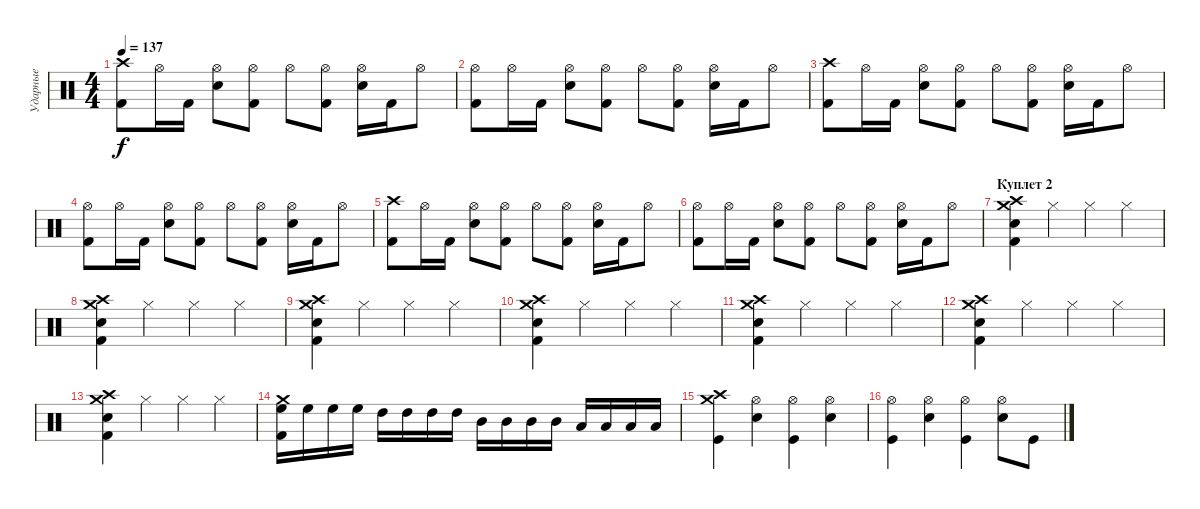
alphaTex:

\track ("Ударные" "Ударные") {instrument percussion}
\staff {score}
\articulation defaults
\ts (4 4)
\tempo 137
\clef neutral
\ks c
("Crash high (hit)" "Kick (hit) 2").8{dy f} "Hi-Hat (open)".16 "Kick (hit) 2".16 ("Hi-Hat (open)" "Electric Snare (hit)").8 ("Hi-Hat (open)" "Kick (hit) 2").8 "Hi-Hat (open)".8 ("Hi-Hat (open)" "Kick (hit) 2").8 ("Hi-Hat (open)" "Electric Snare (hit)").16 "Kick (hit) 2".16 "Hi-Hat (open)".8 |
("Hi-Hat (open)" "Kick (hit) 2").8 "Hi-Hat (open)".16 "Kick (hit) 2".16 ("Hi-Hat (open)" "Electric Snare (hit)").8 ("Hi-Hat (open)" "Kick (hit) 2").8 "Hi-Hat (open)".8 ("Hi-Hat (open)" "Kick (hit) 2").8 ("Hi-Hat (open)" "Electric Snare (hit)").16 "Kick (hit) 2".16 "Hi-Hat (open)".8 |
("Crash high (hit)" "Kick (hit) 2").8 "Hi-Hat (open)".16 "Kick (hit) 2".16 ("Hi-Hat (open)" "Electric Snare (hit)").8 ("Hi-Hat (open)" "Kick (hit) 2").8 "Hi-Hat (open)".8 ("Hi-Hat (open)" "Kick (hit) 2").8 ("Hi-Hat (open)" "Electric Snare (hit)").16 "Kick (hit) 2".16 "Hi-Hat (open)".8 |
("Hi-Hat (open)" "Kick (hit) 2").8 "Hi-Hat (open)".16 "Kick (hit) 2".16 ("Hi-Hat (open)" "Electric Snare (hit)").8 ("Hi-Hat (open)" "Kick (hit) 2").8 "Hi-Hat (open)".8 ("Hi-Hat (open)" "Kick (hit) 2").8 ("Hi-Hat (open)" "Electric Snare (hit)").16 "Kick (hit) 2".16 "Hi-Hat (open)".8 |
("Crash high (hit)" "Kick (hit) 2").8 "Hi-Hat (open)".16 "Kick (hit) 2".16 ("Hi-Hat (open)" "Electric Snare (hit)").8 ("Hi-Hat (open)" "Kick (hit) 2").8 "Hi-Hat (open)".8 ("Hi-Hat (open)" "Kick (hit) 2").8 ("Hi-Hat (open)" "Electric Snare (hit)").16 "Kick (hit) 2".16 "Hi-Hat (open)".8 |
("Hi-Hat (open)" "Kick (hit) 2").8 "Hi-Hat (open)".16 "Kick (hit) 2".16 ("Hi-Hat (open)" "Electric Snare (hit)").8 ("Hi-Hat (open)" "Kick (hit) 2").8 "Hi-Hat (open)".8 ("Hi-Hat (open)" "Kick (hit) 2").8 ("Hi-Hat (open)" "Electric Snare (hit)").16 "Kick (hit) 2".16 "Hi-Hat (open)".8 |
\section ("" "Куплет 2")
("Crash medium (hit)" "Crash high (hit)" "Electric Snare (hit)" "Kick (hit) 2").4 "Hi-Hat (closed)".4 "Hi-Hat (closed)".4 "Hi-Hat (closed)".4 |
("Crash medium (hit)" "Crash high (hit)" "Electric Snare (hit)" "Kick (hit) 2").4 "Hi-Hat (closed)".4 "Hi-Hat (closed)".4 "Hi-Hat (closed)".4 |
("Crash medium (hit)" "Crash high (hit)" "Electric Snare (hit)" "Kick (hit) 2").4 "Hi-Hat (closed)".4 "Hi-Hat (closed)".4 "Hi-Hat (closed)".4 |
("Crash medium (hit)" "Crash high (hit)" "Electric Snare (hit)" "Kick (hit) 2").4 "Hi-Hat (closed)".4 "Hi-Hat (closed)".4 "Hi-Hat (closed)".4 |
("Crash medium (hit)" "Crash high (hit)" "Electric Snare (hit)" "Kick (hit) 2").4 "Hi-Hat (closed)".4 "Hi-Hat (closed)".4 "Hi-Hat (closed)".4 |
("Crash medium (hit)" "Crash high (hit)" "Electric Snare (hit)" "Kick (hit) 2").4 "Hi-Hat (closed)".4 "Hi-Hat (closed)".4 "Hi-Hat (closed)".4 |
("Crash medium (hit)" "Crash high (hit)" "Electric Snare (hit)" "Kick (hit) 2").4 "Hi-Hat (closed)".4 "Hi-Hat (closed)".4 "Hi-Hat (closed)".4 |
("High Floor Tom (hit)" "Crash medium (hit)" "Kick (hit) 2").16 "High Floor Tom (hit)".16 "High Floor Tom (hit)".16 "High Floor Tom (hit)".16 "High Tom (hit)".16 "High Tom (hit)".16 "High Tom (hit)".16 "High Tom (hit)".16 "Mid Tom (hit)".16 "Mid Tom (hit)".16 "Mid Tom (hit)".16 "Mid Tom (hit)".16 "Low Tom (hit)".16 "Low Tom (hit)".16 "Low Tom (hit)".16 "Low Tom (hit)".16 |
("Crash high (hit)" "Crash medium (hit)" "Kick (hit)").4 ("Hi-Hat (open)" "Electric Snare (hit)").4 ("Hi-Hat (open)" "Kick (hit)").4 ("Hi-Hat (open)" "Electric Snare (hit)").4 |
("Hi-Hat (open)" "Kick (hit)").4 ("Hi-Hat (open)" "Electric Snare (hit)").4 ("Hi-Hat (open)" "Kick (hit)").4 ("Hi-Hat (open)" "Electric Snare (hit)").8 "Kick (hit)".8
